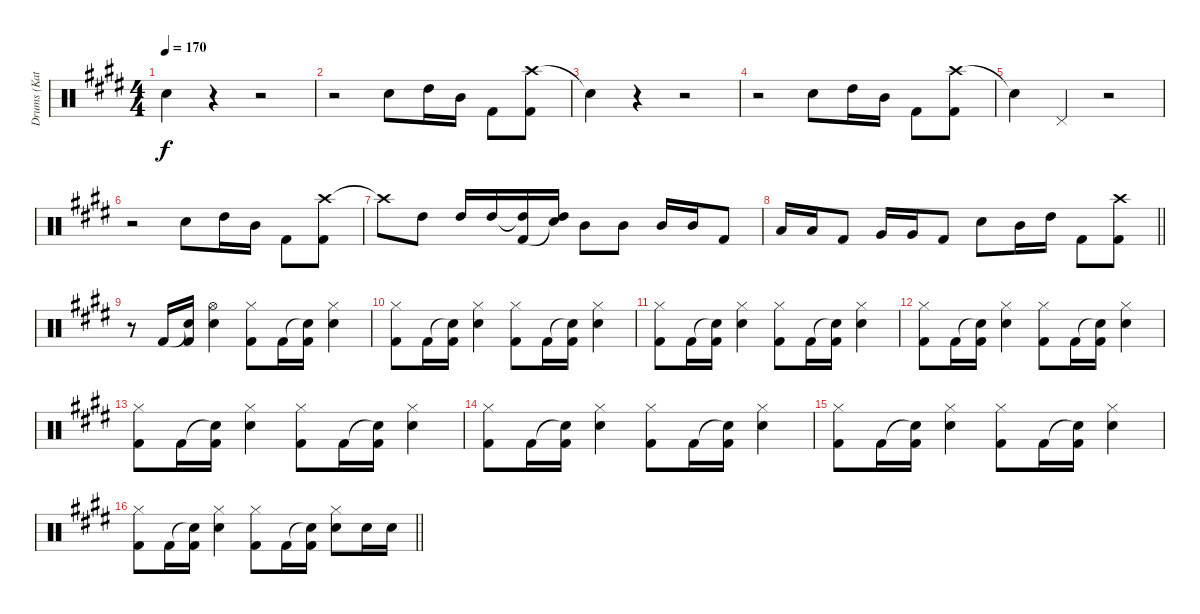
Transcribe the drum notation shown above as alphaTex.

\track ("Drums (Katsuji)" "Drums (Kat") {instrument percussion}
\staff {score}
\articulation defaults
\ts (4 4)
\tempo 170
\clef neutral
\ks e "Snare (hit) 2".4{dy f}
r.4 r.2 |
r.2 "Snare (hit) 2".8 "High Tom (hit)".16 "Mid Tom (hit)".16 "Kick (hit) 2".8 ("Crash high (hit)" "Kick (hit) 2").8 |
"Snare (hit)"{t}.4 r.4 r.2 |
r.2 "Snare (hit) 2".8 "High Tom (hit)".16 "Mid Tom (hit)".16 "Kick (hit) 2".8 ("Crash high (hit)" "Kick (hit) 2").8 |
"Snare (hit)"{t}.4 "Pedal Hi-Hat (hit)".4 r.2 |
r.2 "Snare (hit) 2".8 "High Tom (hit)".16 "Mid Tom (hit)".16 "Kick (hit) 2".8 ("Crash high (hit)" "Kick (hit) 2").8 |
"Crash high (hit)"{t}.8 "High Tom (hit)".8 "High Tom (hit)".16 "High Tom (hit)".16 ("High Tom (hit)"{t} "Kick (hit) 2").16 ("High Tom (hit)" "Snare (hit)"{t}).16 "Mid Tom (hit)".8 "Mid Tom (hit)".8 "Mid Tom (hit)".16 "Mid Tom (hit)".16 "Kick (hit) 2".8 |
\barLineRight lightlight "Low Tom (hit)".16 "Low Tom (hit)".16 "Kick (hit) 2".8 "Very Low Tom (hit)".16 "Very Low Tom (hit)".16 "Kick (hit) 2".8 "Snare (hit) 2".8 "Mid Tom (hit)".16 "High Tom (hit)".16 "Kick (hit) 2".8
("Crash high (hit)" "Kick (hit) 2").8 |
r.8 "Kick (hit) 2".16 ("Snare (hit)"{t} "Kick (hit) 2").16 ("Hi-Hat (open)" "Snare (hit) 2").4 ("Hi-Hat (closed)" "Kick (hit) 2").8 "Kick (hit) 2".16 ("Snare (hit)"{t} "Kick (hit) 2").16 ("Hi-Hat (closed)" "Snare (hit) 2").4 |
("Hi-Hat (closed)" "Kick (hit) 2").8 "Kick (hit) 2".16 ("Snare (hit)"{t} "Kick (hit) 2").16 ("Hi-Hat (closed)" "Snare (hit) 2").4 ("Hi-Hat (closed)" "Kick (hit) 2").8 "Kick (hit) 2".16 ("Snare (hit)"{t} "Kick (hit) 2").16 ("Hi-Hat (closed)" "Snare (hit) 2").4 |
("Hi-Hat (closed)" "Kick (hit) 2").8 "Kick (hit) 2".16 ("Snare (hit)"{t} "Kick (hit) 2").16 ("Hi-Hat (closed)" "Snare (hit) 2").4 ("Hi-Hat (closed)" "Kick (hit) 2").8 "Kick (hit) 2".16 ("Snare (hit)"{t} "Kick (hit) 2").16 ("Hi-Hat (closed)" "Snare (hit) 2").4 |
("Hi-Hat (closed)" "Kick (hit) 2").8 "Kick (hit) 2".16 ("Snare (hit)"{t} "Kick (hit) 2").16 ("Hi-Hat (closed)" "Snare (hit) 2").4 ("Hi-Hat (closed)" "Kick (hit) 2").8 "Kick (hit) 2".16 ("Snare (hit)"{t} "Kick (hit) 2").16 ("Hi-Hat (closed)" "Snare (hit) 2").4 |
("Hi-Hat (closed)" "Kick (hit) 2").8 "Kick (hit) 2".16 ("Snare (hit)"{t} "Kick (hit) 2").16 ("Hi-Hat (closed)" "Snare (hit) 2").4 ("Hi-Hat (closed)" "Kick (hit) 2").8 "Kick (hit) 2".16 ("Snare (hit)"{t} "Kick (hit) 2").16 ("Hi-Hat (closed)" "Snare (hit) 2").4 |
("Hi-Hat (closed)" "Kick (hit) 2").8 "Kick (hit) 2".16 ("Snare (hit)"{t} "Kick (hit) 2").16 ("Hi-Hat (closed)" "Snare (hit) 2").4 ("Hi-Hat (closed)" "Kick (hit) 2").8 "Kick (hit) 2".16 ("Snare (hit)"{t} "Kick (hit) 2").16 ("Hi-Hat (closed)" "Snare (hit) 2").4 |
("Hi-Hat (closed)" "Kick (hit) 2").8 "Kick (hit) 2".16 ("Snare (hit)"{t} "Kick (hit) 2").16 ("Hi-Hat (closed)" "Snare (hit) 2").4 ("Hi-Hat (closed)" "Kick (hit) 2").8 "Kick (hit) 2".16 ("Snare (hit)"{t} "Kick (hit) 2").16 ("Hi-Hat (closed)" "Snare (hit) 2").4 |
\barLineRight lightlight
("Hi-Hat (closed)" "Kick (hit) 2").8 "Kick (hit) 2".16 ("Snare (hit)"{t} "Kick (hit) 2").16 ("Hi-Hat (closed)" "Snare (hit) 2").4 ("Hi-Hat (closed)" "Kick (hit) 2").8 "Kick (hit) 2".16 ("Snare (hit)"{t} "Kick (hit) 2").16 ("Hi-Hat (closed)" "Snare (hit) 2").8 "Snare (hit) 2".16 "Snare (hit) 2".16
